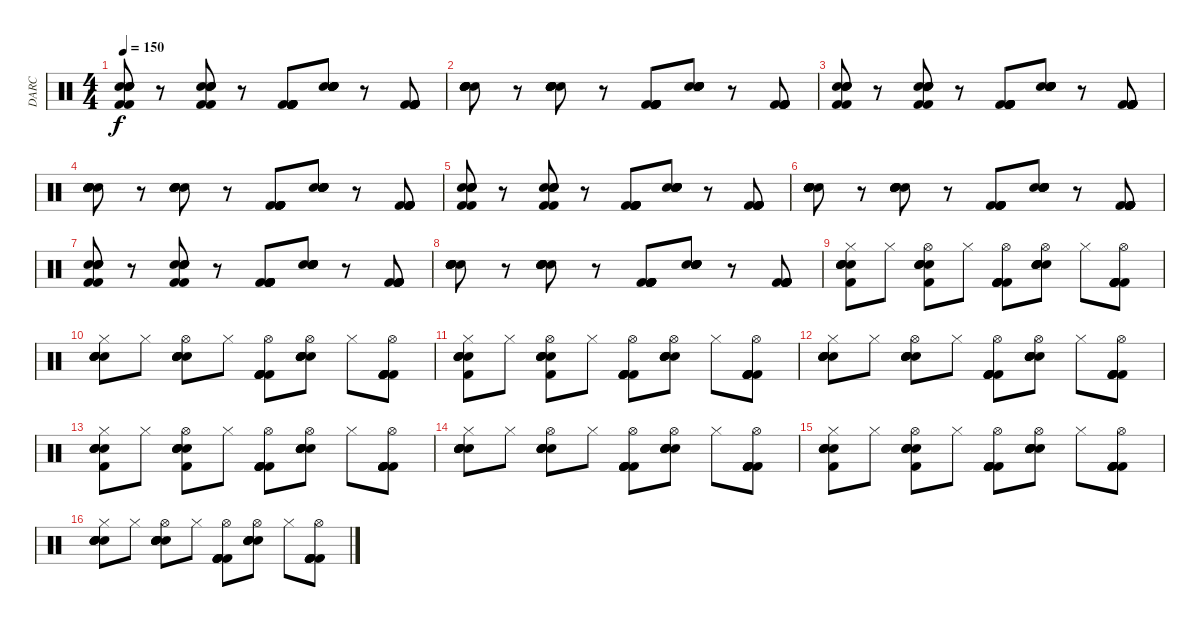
\track ("DARC" "DARC") {instrument percussion}
\staff {score}
\articulation defaults
\ts (4 4)
\tempo 150
\clef neutral
\ks c
("Kick (hit) 2" "Kick (hit) 2" "Electric Snare (hit)" "Electric Snare (hit)" "Electric Snare (hit)" "Electric Snare (hit)").8{dy f} r.8 ("Kick (hit) 2" "Kick (hit) 2" "Electric Snare (hit)" "Electric Snare (hit)" "Electric Snare (hit)" "Electric Snare (hit)").8 r.8 ("Kick (hit) 2" "Kick (hit) 2" "Kick (hit) 2" "Kick (hit) 2" "Kick (hit) 2" "Kick (hit) 2").8 ("Electric Snare (hit)" "Electric Snare (hit)" "Electric Snare (hit)" "Electric Snare (hit)" "Electric Snare (hit)" "Electric Snare (hit)").8 r.8 ("Kick (hit) 2" "Kick (hit) 2" "Kick (hit) 2" "Kick (hit) 2" "Kick (hit) 2" "Kick (hit) 2").8 |
("Electric Snare (hit)" "Electric Snare (hit)" "Electric Snare (hit)" "Electric Snare (hit)" "Electric Snare (hit)" "Electric Snare (hit)").8 r.8 ("Electric Snare (hit)" "Electric Snare (hit)" "Electric Snare (hit)" "Electric Snare (hit)" "Electric Snare (hit)" "Electric Snare (hit)").8 r.8 ("Kick (hit) 2" "Kick (hit) 2" "Kick (hit) 2" "Kick (hit) 2" "Kick (hit) 2" "Kick (hit) 2").8 ("Electric Snare (hit)" "Electric Snare (hit)" "Electric Snare (hit)" "Electric Snare (hit)" "Electric Snare (hit)" "Electric Snare (hit)").8 r.8 ("Kick (hit) 2" "Kick (hit) 2" "Kick (hit) 2" "Kick (hit) 2" "Kick (hit) 2" "Kick (hit) 2").8 |
("Kick (hit) 2" "Kick (hit) 2" "Electric Snare (hit)" "Electric Snare (hit)" "Electric Snare (hit)" "Electric Snare (hit)").8 r.8 ("Kick (hit) 2" "Kick (hit) 2" "Electric Snare (hit)" "Electric Snare (hit)" "Electric Snare (hit)" "Electric Snare (hit)").8 r.8 ("Kick (hit) 2" "Kick (hit) 2" "Kick (hit) 2" "Kick (hit) 2" "Kick (hit) 2" "Kick (hit) 2").8 ("Electric Snare (hit)" "Electric Snare (hit)" "Electric Snare (hit)" "Electric Snare (hit)" "Electric Snare (hit)" "Electric Snare (hit)").8 r.8 ("Kick (hit) 2" "Kick (hit) 2" "Kick (hit) 2" "Kick (hit) 2" "Kick (hit) 2" "Kick (hit) 2").8 |
("Electric Snare (hit)" "Electric Snare (hit)" "Electric Snare (hit)" "Electric Snare (hit)" "Electric Snare (hit)" "Electric Snare (hit)").8 r.8 ("Electric Snare (hit)" "Electric Snare (hit)" "Electric Snare (hit)" "Electric Snare (hit)" "Electric Snare (hit)" "Electric Snare (hit)").8 r.8 ("Kick (hit) 2" "Kick (hit) 2" "Kick (hit) 2" "Kick (hit) 2" "Kick (hit) 2" "Kick (hit) 2").8 ("Electric Snare (hit)" "Electric Snare (hit)" "Electric Snare (hit)" "Electric Snare (hit)" "Electric Snare (hit)" "Electric Snare (hit)").8 r.8 ("Kick (hit) 2" "Kick (hit) 2" "Kick (hit) 2" "Kick (hit) 2" "Kick (hit) 2" "Kick (hit) 2").8 |
("Kick (hit) 2" "Kick (hit) 2" "Electric Snare (hit)" "Electric Snare (hit)" "Electric Snare (hit)" "Electric Snare (hit)").8 r.8 ("Kick (hit) 2" "Kick (hit) 2" "Electric Snare (hit)" "Electric Snare (hit)" "Electric Snare (hit)" "Electric Snare (hit)").8 r.8 ("Kick (hit) 2" "Kick (hit) 2" "Kick (hit) 2" "Kick (hit) 2" "Kick (hit) 2" "Kick (hit) 2").8 ("Electric Snare (hit)" "Electric Snare (hit)" "Electric Snare (hit)" "Electric Snare (hit)" "Electric Snare (hit)" "Electric Snare (hit)").8 r.8 ("Kick (hit) 2" "Kick (hit) 2" "Kick (hit) 2" "Kick (hit) 2" "Kick (hit) 2" "Kick (hit) 2").8 |
("Electric Snare (hit)" "Electric Snare (hit)" "Electric Snare (hit)" "Electric Snare (hit)" "Electric Snare (hit)" "Electric Snare (hit)").8 r.8 ("Electric Snare (hit)" "Electric Snare (hit)" "Electric Snare (hit)" "Electric Snare (hit)" "Electric Snare (hit)" "Electric Snare (hit)").8 r.8 ("Kick (hit) 2" "Kick (hit) 2" "Kick (hit) 2" "Kick (hit) 2" "Kick (hit) 2" "Kick (hit) 2").8 ("Electric Snare (hit)" "Electric Snare (hit)" "Electric Snare (hit)" "Electric Snare (hit)" "Electric Snare (hit)" "Electric Snare (hit)").8 r.8 ("Kick (hit) 2" "Kick (hit) 2" "Kick (hit) 2" "Kick (hit) 2" "Kick (hit) 2" "Kick (hit) 2").8 |
("Kick (hit) 2" "Kick (hit) 2" "Electric Snare (hit)" "Electric Snare (hit)" "Electric Snare (hit)" "Electric Snare (hit)").8 r.8 ("Kick (hit) 2" "Kick (hit) 2" "Electric Snare (hit)" "Electric Snare (hit)" "Electric Snare (hit)" "Electric Snare (hit)").8 r.8 ("Kick (hit) 2" "Kick (hit) 2" "Kick (hit) 2" "Kick (hit) 2" "Kick (hit) 2" "Kick (hit) 2").8 ("Electric Snare (hit)" "Electric Snare (hit)" "Electric Snare (hit)" "Electric Snare (hit)" "Electric Snare (hit)" "Electric Snare (hit)").8 r.8 ("Kick (hit) 2" "Kick (hit) 2" "Kick (hit) 2" "Kick (hit) 2" "Kick (hit) 2" "Kick (hit) 2").8 |
("Electric Snare (hit)" "Electric Snare (hit)" "Electric Snare (hit)" "Electric Snare (hit)" "Electric Snare (hit)" "Electric Snare (hit)").8 r.8 ("Electric Snare (hit)" "Electric Snare (hit)" "Electric Snare (hit)" "Electric Snare (hit)" "Electric Snare (hit)" "Electric Snare (hit)").8 r.8 ("Kick (hit) 2" "Kick (hit) 2" "Kick (hit) 2" "Kick (hit) 2" "Kick (hit) 2" "Kick (hit) 2").8 ("Electric Snare (hit)" "Electric Snare (hit)" "Electric Snare (hit)" "Electric Snare (hit)" "Electric Snare (hit)" "Electric Snare (hit)").8 r.8 ("Kick (hit) 2" "Kick (hit) 2" "Kick (hit) 2" "Kick (hit) 2" "Kick (hit) 2" "Kick (hit) 2").8 |
("Hi-Hat (closed)" "Kick (hit) 2" "Electric Snare (hit)" "Electric Snare (hit)" "Electric Snare (hit)" "Electric Snare (hit)").8 "Hi-Hat (closed)".8 ("Hi-Hat (open)" "Kick (hit) 2" "Electric Snare (hit)" "Electric Snare (hit)" "Electric Snare (hit)" "Electric Snare (hit)").8 "Hi-Hat (closed)".8 ("Hi-Hat (open)" "Kick (hit) 2" "Kick (hit) 2" "Kick (hit) 2" "Kick (hit) 2" "Kick (hit) 2").8 ("Hi-Hat (open)" "Electric Snare (hit)" "Electric Snare (hit)" "Electric Snare (hit)" "Electric Snare (hit)" "Electric Snare (hit)").8 "Hi-Hat (closed)".8 ("Hi-Hat (open)" "Kick (hit) 2" "Kick (hit) 2" "Kick (hit) 2" "Kick (hit) 2" "Kick (hit) 2").8 |
("Hi-Hat (closed)" "Electric Snare (hit)" "Electric Snare (hit)" "Electric Snare (hit)" "Electric Snare (hit)" "Electric Snare (hit)").8 "Hi-Hat (closed)".8 ("Hi-Hat (open)" "Electric Snare (hit)" "Electric Snare (hit)" "Electric Snare (hit)" "Electric Snare (hit)" "Electric Snare (hit)").8 "Hi-Hat (closed)".8 ("Hi-Hat (open)" "Kick (hit) 2" "Kick (hit) 2" "Kick (hit) 2" "Kick (hit) 2" "Kick (hit) 2").8 ("Hi-Hat (open)" "Electric Snare (hit)" "Electric Snare (hit)" "Electric Snare (hit)" "Electric Snare (hit)" "Electric Snare (hit)").8 "Hi-Hat (closed)".8 ("Hi-Hat (open)" "Kick (hit) 2" "Kick (hit) 2" "Kick (hit) 2" "Kick (hit) 2" "Kick (hit) 2").8 |
("Hi-Hat (closed)" "Kick (hit) 2" "Electric Snare (hit)" "Electric Snare (hit)" "Electric Snare (hit)" "Electric Snare (hit)").8 "Hi-Hat (closed)".8 ("Hi-Hat (open)" "Kick (hit) 2" "Electric Snare (hit)" "Electric Snare (hit)" "Electric Snare (hit)" "Electric Snare (hit)").8 "Hi-Hat (closed)".8 ("Hi-Hat (open)" "Kick (hit) 2" "Kick (hit) 2" "Kick (hit) 2" "Kick (hit) 2" "Kick (hit) 2").8 ("Hi-Hat (open)" "Electric Snare (hit)" "Electric Snare (hit)" "Electric Snare (hit)" "Electric Snare (hit)" "Electric Snare (hit)").8 "Hi-Hat (closed)".8 ("Hi-Hat (open)" "Kick (hit) 2" "Kick (hit) 2" "Kick (hit) 2" "Kick (hit) 2" "Kick (hit) 2").8 |
("Hi-Hat (closed)" "Electric Snare (hit)" "Electric Snare (hit)" "Electric Snare (hit)" "Electric Snare (hit)" "Electric Snare (hit)").8 "Hi-Hat (closed)".8 ("Hi-Hat (open)" "Electric Snare (hit)" "Electric Snare (hit)" "Electric Snare (hit)" "Electric Snare (hit)" "Electric Snare (hit)").8 "Hi-Hat (closed)".8 ("Hi-Hat (open)" "Kick (hit) 2" "Kick (hit) 2" "Kick (hit) 2" "Kick (hit) 2" "Kick (hit) 2").8 ("Hi-Hat (open)" "Electric Snare (hit)" "Electric Snare (hit)" "Electric Snare (hit)" "Electric Snare (hit)" "Electric Snare (hit)").8 "Hi-Hat (closed)".8 ("Hi-Hat (open)" "Kick (hit) 2" "Kick (hit) 2" "Kick (hit) 2" "Kick (hit) 2" "Kick (hit) 2").8 |
("Hi-Hat (closed)" "Kick (hit) 2" "Electric Snare (hit)" "Electric Snare (hit)" "Electric Snare (hit)" "Electric Snare (hit)").8 "Hi-Hat (closed)".8 ("Hi-Hat (open)" "Kick (hit) 2" "Electric Snare (hit)" "Electric Snare (hit)" "Electric Snare (hit)" "Electric Snare (hit)").8 "Hi-Hat (closed)".8 ("Hi-Hat (open)" "Kick (hit) 2" "Kick (hit) 2" "Kick (hit) 2" "Kick (hit) 2" "Kick (hit) 2").8 ("Hi-Hat (open)" "Electric Snare (hit)" "Electric Snare (hit)" "Electric Snare (hit)" "Electric Snare (hit)" "Electric Snare (hit)").8 "Hi-Hat (closed)".8 ("Hi-Hat (open)" "Kick (hit) 2" "Kick (hit) 2" "Kick (hit) 2" "Kick (hit) 2" "Kick (hit) 2").8 |
("Hi-Hat (closed)" "Electric Snare (hit)" "Electric Snare (hit)" "Electric Snare (hit)" "Electric Snare (hit)" "Electric Snare (hit)").8 "Hi-Hat (closed)".8 ("Hi-Hat (open)" "Electric Snare (hit)" "Electric Snare (hit)" "Electric Snare (hit)" "Electric Snare (hit)" "Electric Snare (hit)").8 "Hi-Hat (closed)".8 ("Hi-Hat (open)" "Kick (hit) 2" "Kick (hit) 2" "Kick (hit) 2" "Kick (hit) 2" "Kick (hit) 2").8 ("Hi-Hat (open)" "Electric Snare (hit)" "Electric Snare (hit)" "Electric Snare (hit)" "Electric Snare (hit)" "Electric Snare (hit)").8 "Hi-Hat (closed)".8 ("Hi-Hat (open)" "Kick (hit) 2" "Kick (hit) 2" "Kick (hit) 2" "Kick (hit) 2" "Kick (hit) 2").8 |
("Hi-Hat (closed)" "Kick (hit) 2" "Electric Snare (hit)" "Electric Snare (hit)" "Electric Snare (hit)" "Electric Snare (hit)").8 "Hi-Hat (closed)".8 ("Hi-Hat (open)" "Kick (hit) 2" "Electric Snare (hit)" "Electric Snare (hit)" "Electric Snare (hit)" "Electric Snare (hit)").8 "Hi-Hat (closed)".8 ("Hi-Hat (open)" "Kick (hit) 2" "Kick (hit) 2" "Kick (hit) 2" "Kick (hit) 2" "Kick (hit) 2").8 ("Hi-Hat (open)" "Electric Snare (hit)" "Electric Snare (hit)" "Electric Snare (hit)" "Electric Snare (hit)" "Electric Snare (hit)").8 "Hi-Hat (closed)".8 ("Hi-Hat (open)" "Kick (hit) 2" "Kick (hit) 2" "Kick (hit) 2" "Kick (hit) 2" "Kick (hit) 2").8 |
("Hi-Hat (closed)" "Electric Snare (hit)" "Electric Snare (hit)" "Electric Snare (hit)" "Electric Snare (hit)" "Electric Snare (hit)").8 "Hi-Hat (closed)".8 ("Hi-Hat (open)" "Electric Snare (hit)" "Electric Snare (hit)" "Electric Snare (hit)" "Electric Snare (hit)" "Electric Snare (hit)").8 "Hi-Hat (closed)".8 ("Hi-Hat (open)" "Kick (hit) 2" "Kick (hit) 2" "Kick (hit) 2" "Kick (hit) 2" "Kick (hit) 2").8 ("Hi-Hat (open)" "Electric Snare (hit)" "Electric Snare (hit)" "Electric Snare (hit)" "Electric Snare (hit)" "Electric Snare (hit)").8 "Hi-Hat (closed)".8 ("Hi-Hat (open)" "Kick (hit) 2" "Kick (hit) 2" "Kick (hit) 2" "Kick (hit) 2" "Kick (hit) 2").8
